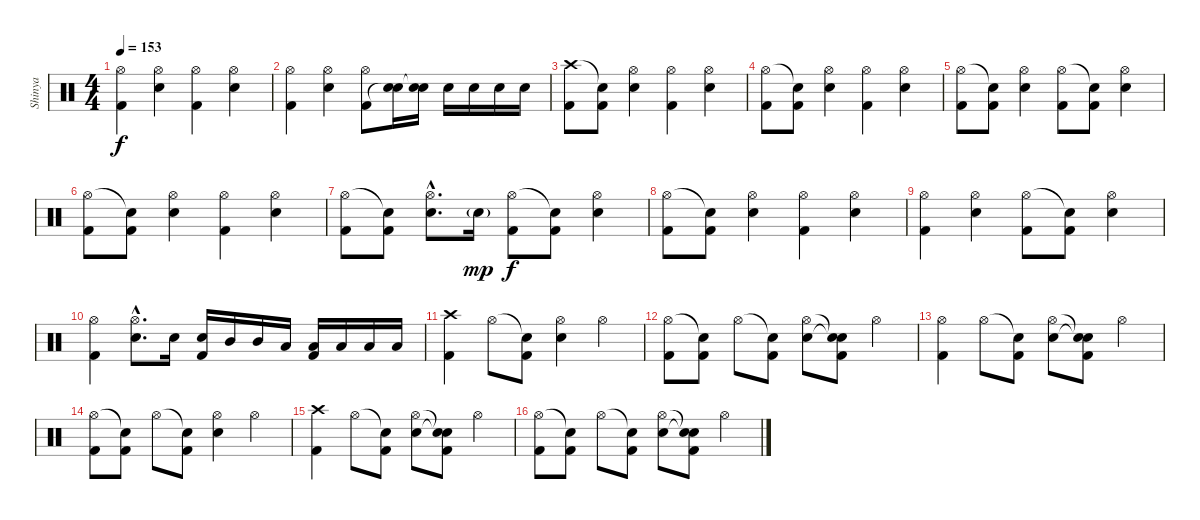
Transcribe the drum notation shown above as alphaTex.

\track ("Shinya" "Shinya") {instrument percussion}
\staff {score}
\articulation defaults
\ts (4 4)
\tempo 153
\clef neutral
\ks c
("Hi-Hat (open)" "Kick (hit) 2").4{dy f} ("Hi-Hat (open)" "Electric Snare (hit)").4 ("Hi-Hat (open)" "Kick (hit) 2").4 ("Hi-Hat (open)" "Electric Snare (hit)").4 |
("Hi-Hat (open)" "Kick (hit) 2").4 ("Hi-Hat (open)" "Electric Snare (hit)").4 ("Hi-Hat (open)" "Kick (hit) 2").8 ("Electric Snare (hit)" "Snare (hit)"{t}).16 ("Electric Snare (hit)" "Snare (hit)"{t}).16 "Electric Snare (hit)".16 "Electric Snare (hit)".16 "Electric Snare (hit)".16 "Electric Snare (hit)".16 |
("Crash high (hit)" "Kick (hit) 2").8 ("Snare (hit)"{t} "Kick (hit) 2").8 ("Hi-Hat (open)" "Electric Snare (hit)").4 ("Hi-Hat (open)" "Kick (hit) 2").4 ("Hi-Hat (open)" "Electric Snare (hit)").4 |
("Hi-Hat (open)" "Kick (hit) 2").8 ("Snare (hit)"{t} "Kick (hit) 2").8 ("Hi-Hat (open)" "Electric Snare (hit)").4 ("Hi-Hat (open)" "Kick (hit) 2").4 ("Hi-Hat (open)" "Electric Snare (hit)").4 |
("Hi-Hat (open)" "Kick (hit) 2").8 ("Snare (hit)"{t} "Kick (hit) 2").8 ("Hi-Hat (open)" "Electric Snare (hit)").4 ("Hi-Hat (open)" "Kick (hit) 2").8 ("Snare (hit)"{t} "Kick (hit) 2").8 ("Hi-Hat (open)" "Electric Snare (hit)").4 |
("Hi-Hat (open)" "Kick (hit) 2").8 ("Snare (hit)"{t} "Kick (hit) 2").8 ("Hi-Hat (open)" "Electric Snare (hit)").4 ("Hi-Hat (open)" "Kick (hit) 2").4 ("Hi-Hat (open)" "Electric Snare (hit)").4 |
("Hi-Hat (open)" "Kick (hit) 2").8 ("Snare (hit)"{t} "Kick (hit) 2").8 ("Hi-Hat (open)"{hac} "Electric Snare (hit)"{hac}).8{d} "Electric Snare (hit)"{g}.16{dy mp} ("Hi-Hat (open)" "Kick (hit) 2").8{dy f} ("Snare (hit)"{t} "Kick (hit) 2").8 ("Hi-Hat (open)" "Electric Snare (hit)").4 |
("Hi-Hat (open)" "Kick (hit) 2").8 ("Snare (hit)"{t} "Kick (hit) 2").8 ("Hi-Hat (open)" "Electric Snare (hit)").4 ("Hi-Hat (open)" "Kick (hit) 2").4 ("Hi-Hat (open)" "Electric Snare (hit)").4 |
("Hi-Hat (open)" "Kick (hit) 2").4 ("Hi-Hat (open)" "Electric Snare (hit)").4 ("Hi-Hat (open)" "Kick (hit) 2").8 ("Snare (hit)"{t} "Kick (hit) 2").8 ("Hi-Hat (open)" "Electric Snare (hit)").4 |
("Hi-Hat (open)" "Kick (hit) 2").4 ("Hi-Hat (open)"{hac} "Electric Snare (hit)"{hac}).8{d} "Electric Snare (hit)".16 ("Kick (hit) 2" "Electric Snare (hit)").16 "Mid Tom (hit)".16 "Mid Tom (hit)".16 "Low Tom (hit)".16 ("Kick (hit) 2" "Low Tom (hit)").16 "Low Floor Tom (hit)".16 "Low Floor Tom (hit)".16 "Low Floor Tom (hit)".16 |
("Crash high (hit)" "Kick (hit) 2").4 "Hi-Hat (open)".8 ("Snare (hit)"{t} "Kick (hit) 2").8 ("Hi-Hat (open)" "Electric Snare (hit)").4 "Hi-Hat (open)".4 |
("Hi-Hat (open)" "Kick (hit) 2").8 ("Snare (hit)"{t} "Kick (hit) 2").8 "Hi-Hat (open)".8 ("Snare (hit)"{t} "Kick (hit) 2").8 ("Hi-Hat (open)" "Electric Snare (hit)").8 ("Snare (hit)"{t} "Snare (hit)"{t} "Kick (hit) 2").8 "Hi-Hat (open)".4 |
("Hi-Hat (open)" "Kick (hit) 2").4 "Hi-Hat (open)".8 ("Snare (hit)"{t} "Kick (hit) 2").8 ("Hi-Hat (open)" "Electric Snare (hit)").8 ("Snare (hit)"{t} "Snare (hit)"{t} "Kick (hit) 2").8 "Hi-Hat (open)".4 |
("Hi-Hat (open)" "Kick (hit) 2").8 ("Snare (hit)"{t} "Kick (hit) 2").8 "Hi-Hat (open)".8 ("Snare (hit)"{t} "Kick (hit) 2").8 ("Hi-Hat (open)" "Electric Snare (hit)").4 "Hi-Hat (open)".4 |
("Crash high (hit)" "Kick (hit) 2").4 "Hi-Hat (open)".8 ("Snare (hit)"{t} "Kick (hit) 2").8 ("Hi-Hat (open)" "Electric Snare (hit)").8 ("Snare (hit)"{t} "Snare (hit)"{t} "Kick (hit) 2").8 "Hi-Hat (open)".4 |
("Hi-Hat (open)" "Kick (hit) 2").8 ("Snare (hit)"{t} "Kick (hit) 2").8 "Hi-Hat (open)".8 ("Snare (hit)"{t} "Kick (hit) 2").8 ("Hi-Hat (open)" "Electric Snare (hit)").8 ("Snare (hit)"{t} "Snare (hit)"{t} "Kick (hit) 2").8 "Hi-Hat (open)".4
